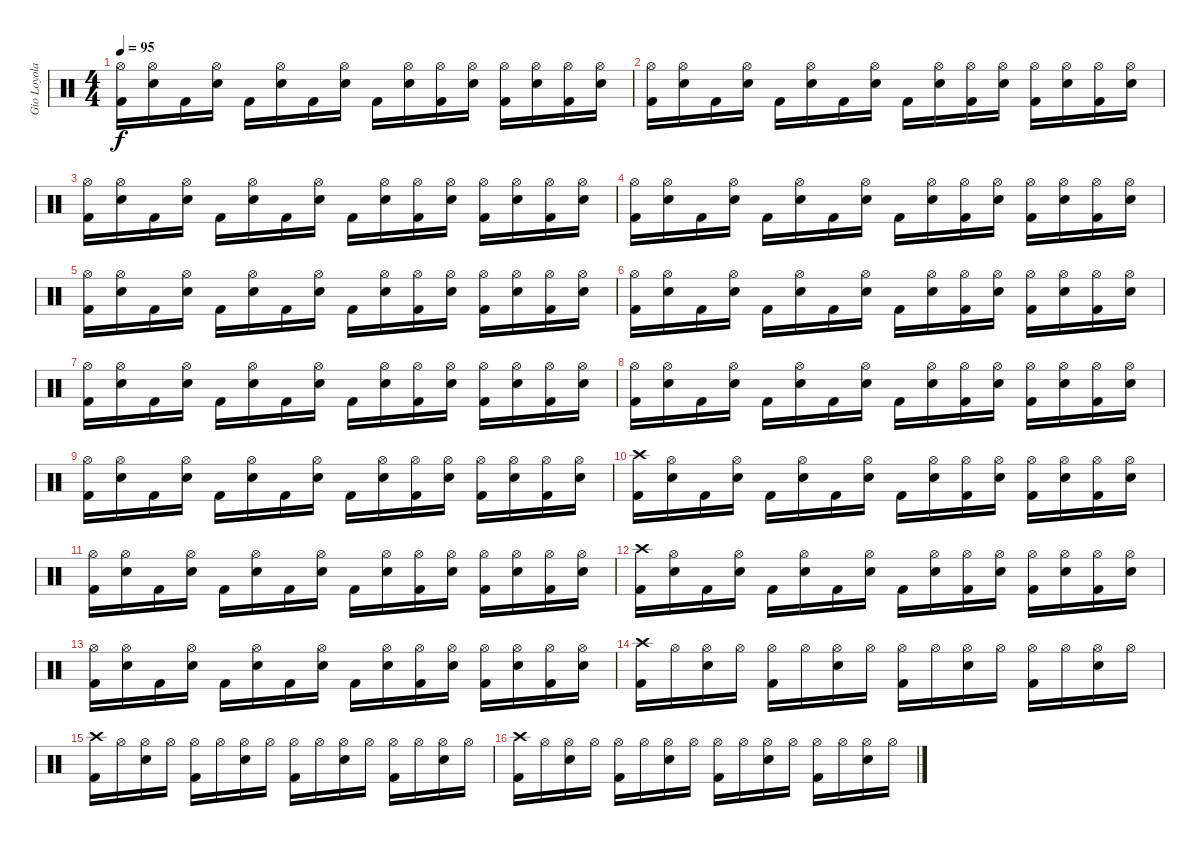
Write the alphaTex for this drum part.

\track ("Gio Loyola" "Gio Loyola") {instrument percussion}
\staff {score}
\articulation defaults
\ts (4 4)
\tempo 95
\clef neutral
\ks c
("Hi-Hat (open)" "Kick (hit) 2").16{dy f} ("Hi-Hat (open)" "Snare (hit) 2").16 "Kick (hit) 2".16 ("Hi-Hat (open)" "Snare (hit) 2").16 "Kick (hit) 2".16 ("Hi-Hat (open)" "Snare (hit) 2").16 "Kick (hit) 2".16 ("Hi-Hat (open)" "Snare (hit) 2").16 "Kick (hit) 2".16 ("Hi-Hat (open)" "Snare (hit) 2").16 ("Hi-Hat (open)" "Kick (hit) 2").16 ("Hi-Hat (open)" "Snare (hit) 2").16 ("Hi-Hat (open)" "Kick (hit) 2").16 ("Hi-Hat (open)" "Snare (hit) 2").16 ("Hi-Hat (open)" "Kick (hit) 2").16 ("Hi-Hat (open)" "Snare (hit) 2").16 |
("Hi-Hat (open)" "Kick (hit) 2").16 ("Hi-Hat (open)" "Snare (hit) 2").16 "Kick (hit) 2".16 ("Hi-Hat (open)" "Snare (hit) 2").16 "Kick (hit) 2".16 ("Hi-Hat (open)" "Snare (hit) 2").16 "Kick (hit) 2".16 ("Hi-Hat (open)" "Snare (hit) 2").16 "Kick (hit) 2".16 ("Hi-Hat (open)" "Snare (hit) 2").16 ("Hi-Hat (open)" "Kick (hit) 2").16 ("Hi-Hat (open)" "Snare (hit) 2").16 ("Hi-Hat (open)" "Kick (hit) 2").16 ("Hi-Hat (open)" "Snare (hit) 2").16 ("Hi-Hat (open)" "Kick (hit) 2").16 ("Hi-Hat (open)" "Snare (hit) 2").16 |
("Hi-Hat (open)" "Kick (hit) 2").16 ("Hi-Hat (open)" "Snare (hit) 2").16 "Kick (hit) 2".16 ("Hi-Hat (open)" "Snare (hit) 2").16 "Kick (hit) 2".16 ("Hi-Hat (open)" "Snare (hit) 2").16 "Kick (hit) 2".16 ("Hi-Hat (open)" "Snare (hit) 2").16 "Kick (hit) 2".16 ("Hi-Hat (open)" "Snare (hit) 2").16 ("Hi-Hat (open)" "Kick (hit) 2").16 ("Hi-Hat (open)" "Snare (hit) 2").16 ("Hi-Hat (open)" "Kick (hit) 2").16 ("Hi-Hat (open)" "Snare (hit) 2").16 ("Hi-Hat (open)" "Kick (hit) 2").16 ("Hi-Hat (open)" "Snare (hit) 2").16 |
("Hi-Hat (open)" "Kick (hit) 2").16 ("Hi-Hat (open)" "Snare (hit) 2").16 "Kick (hit) 2".16 ("Hi-Hat (open)" "Snare (hit) 2").16 "Kick (hit) 2".16 ("Hi-Hat (open)" "Snare (hit) 2").16 "Kick (hit) 2".16 ("Hi-Hat (open)" "Snare (hit) 2").16 "Kick (hit) 2".16 ("Hi-Hat (open)" "Snare (hit) 2").16 ("Hi-Hat (open)" "Kick (hit) 2").16 ("Hi-Hat (open)" "Snare (hit) 2").16 ("Hi-Hat (open)" "Kick (hit) 2").16 ("Hi-Hat (open)" "Snare (hit) 2").16 ("Hi-Hat (open)" "Kick (hit) 2").16 ("Hi-Hat (open)" "Snare (hit) 2").16 |
("Hi-Hat (open)" "Kick (hit) 2").16 ("Hi-Hat (open)" "Snare (hit) 2").16 "Kick (hit) 2".16 ("Hi-Hat (open)" "Snare (hit) 2").16 "Kick (hit) 2".16 ("Hi-Hat (open)" "Snare (hit) 2").16 "Kick (hit) 2".16 ("Hi-Hat (open)" "Snare (hit) 2").16 "Kick (hit) 2".16 ("Hi-Hat (open)" "Snare (hit) 2").16 ("Hi-Hat (open)" "Kick (hit) 2").16 ("Hi-Hat (open)" "Snare (hit) 2").16 ("Hi-Hat (open)" "Kick (hit) 2").16 ("Hi-Hat (open)" "Snare (hit) 2").16 ("Hi-Hat (open)" "Kick (hit) 2").16 ("Hi-Hat (open)" "Snare (hit) 2").16 |
("Hi-Hat (open)" "Kick (hit) 2").16 ("Hi-Hat (open)" "Snare (hit) 2").16 "Kick (hit) 2".16 ("Hi-Hat (open)" "Snare (hit) 2").16 "Kick (hit) 2".16 ("Hi-Hat (open)" "Snare (hit) 2").16 "Kick (hit) 2".16 ("Hi-Hat (open)" "Snare (hit) 2").16 "Kick (hit) 2".16 ("Hi-Hat (open)" "Snare (hit) 2").16 ("Hi-Hat (open)" "Kick (hit) 2").16 ("Hi-Hat (open)" "Snare (hit) 2").16 ("Hi-Hat (open)" "Kick (hit) 2").16 ("Hi-Hat (open)" "Snare (hit) 2").16 ("Hi-Hat (open)" "Kick (hit) 2").16 ("Hi-Hat (open)" "Snare (hit) 2").16 |
("Hi-Hat (open)" "Kick (hit) 2").16 ("Hi-Hat (open)" "Snare (hit) 2").16 "Kick (hit) 2".16 ("Hi-Hat (open)" "Snare (hit) 2").16 "Kick (hit) 2".16 ("Hi-Hat (open)" "Snare (hit) 2").16 "Kick (hit) 2".16 ("Hi-Hat (open)" "Snare (hit) 2").16 "Kick (hit) 2".16 ("Hi-Hat (open)" "Snare (hit) 2").16 ("Hi-Hat (open)" "Kick (hit) 2").16 ("Hi-Hat (open)" "Snare (hit) 2").16 ("Hi-Hat (open)" "Kick (hit) 2").16 ("Hi-Hat (open)" "Snare (hit) 2").16 ("Hi-Hat (open)" "Kick (hit) 2").16 ("Hi-Hat (open)" "Snare (hit) 2").16 |
("Hi-Hat (open)" "Kick (hit) 2").16 ("Hi-Hat (open)" "Snare (hit) 2").16 "Kick (hit) 2".16 ("Hi-Hat (open)" "Snare (hit) 2").16 "Kick (hit) 2".16 ("Hi-Hat (open)" "Snare (hit) 2").16 "Kick (hit) 2".16 ("Hi-Hat (open)" "Snare (hit) 2").16 "Kick (hit) 2".16 ("Hi-Hat (open)" "Snare (hit) 2").16 ("Hi-Hat (open)" "Kick (hit) 2").16 ("Hi-Hat (open)" "Snare (hit) 2").16 ("Hi-Hat (open)" "Kick (hit) 2").16 ("Hi-Hat (open)" "Snare (hit) 2").16 ("Hi-Hat (open)" "Kick (hit) 2").16 ("Hi-Hat (open)" "Snare (hit) 2").16 |
("Hi-Hat (open)" "Kick (hit) 2").16 ("Hi-Hat (open)" "Snare (hit) 2").16 "Kick (hit) 2".16 ("Hi-Hat (open)" "Snare (hit) 2").16 "Kick (hit) 2".16 ("Hi-Hat (open)" "Snare (hit) 2").16 "Kick (hit) 2".16 ("Hi-Hat (open)" "Snare (hit) 2").16 "Kick (hit) 2".16 ("Hi-Hat (open)" "Snare (hit) 2").16 ("Hi-Hat (open)" "Kick (hit) 2").16 ("Hi-Hat (open)" "Snare (hit) 2").16 ("Hi-Hat (open)" "Kick (hit) 2").16 ("Hi-Hat (open)" "Snare (hit) 2").16 ("Hi-Hat (open)" "Kick (hit) 2").16 ("Hi-Hat (open)" "Snare (hit) 2").16 |
("Crash high (hit)" "Kick (hit) 2").16 ("Hi-Hat (open)" "Snare (hit) 2").16 "Kick (hit) 2".16 ("Hi-Hat (open)" "Snare (hit) 2").16 "Kick (hit) 2".16 ("Hi-Hat (open)" "Snare (hit) 2").16 "Kick (hit) 2".16 ("Hi-Hat (open)" "Snare (hit) 2").16 "Kick (hit) 2".16 ("Hi-Hat (open)" "Snare (hit) 2").16 ("Hi-Hat (open)" "Kick (hit) 2").16 ("Hi-Hat (open)" "Snare (hit) 2").16 ("Hi-Hat (open)" "Kick (hit) 2").16 ("Hi-Hat (open)" "Snare (hit) 2").16 ("Hi-Hat (open)" "Kick (hit) 2").16 ("Hi-Hat (open)" "Snare (hit) 2").16 |
("Hi-Hat (open)" "Kick (hit) 2").16 ("Hi-Hat (open)" "Snare (hit) 2").16 "Kick (hit) 2".16 ("Hi-Hat (open)" "Snare (hit) 2").16 "Kick (hit) 2".16 ("Hi-Hat (open)" "Snare (hit) 2").16 "Kick (hit) 2".16 ("Hi-Hat (open)" "Snare (hit) 2").16 "Kick (hit) 2".16 ("Hi-Hat (open)" "Snare (hit) 2").16 ("Hi-Hat (open)" "Kick (hit) 2").16 ("Hi-Hat (open)" "Snare (hit) 2").16 ("Hi-Hat (open)" "Kick (hit) 2").16 ("Hi-Hat (open)" "Snare (hit) 2").16 ("Hi-Hat (open)" "Kick (hit) 2").16 ("Hi-Hat (open)" "Snare (hit) 2").16 |
("Crash high (hit)" "Kick (hit) 2").16 ("Hi-Hat (open)" "Snare (hit) 2").16 "Kick (hit) 2".16 ("Hi-Hat (open)" "Snare (hit) 2").16 "Kick (hit) 2".16 ("Hi-Hat (open)" "Snare (hit) 2").16 "Kick (hit) 2".16 ("Hi-Hat (open)" "Snare (hit) 2").16 "Kick (hit) 2".16 ("Hi-Hat (open)" "Snare (hit) 2").16 ("Hi-Hat (open)" "Kick (hit) 2").16 ("Hi-Hat (open)" "Snare (hit) 2").16 ("Hi-Hat (open)" "Kick (hit) 2").16 ("Hi-Hat (open)" "Snare (hit) 2").16 ("Hi-Hat (open)" "Kick (hit) 2").16 ("Hi-Hat (open)" "Snare (hit) 2").16 |
("Hi-Hat (open)" "Kick (hit) 2").16 ("Hi-Hat (open)" "Snare (hit) 2").16 "Kick (hit) 2".16 ("Hi-Hat (open)" "Snare (hit) 2").16 "Kick (hit) 2".16 ("Hi-Hat (open)" "Snare (hit) 2").16 "Kick (hit) 2".16 ("Hi-Hat (open)" "Snare (hit) 2").16 "Kick (hit) 2".16 ("Hi-Hat (open)" "Snare (hit) 2").16 ("Hi-Hat (open)" "Kick (hit) 2").16 ("Hi-Hat (open)" "Snare (hit) 2").16 ("Hi-Hat (open)" "Kick (hit) 2").16 ("Hi-Hat (open)" "Snare (hit) 2").16 ("Hi-Hat (open)" "Kick (hit) 2").16 ("Hi-Hat (open)" "Snare (hit) 2").16 |
("Crash high (hit)" "Kick (hit) 2").16 "Hi-Hat (open)".16 ("Hi-Hat (open)" "Snare (hit) 2").16 "Hi-Hat (open)".16 ("Hi-Hat (open)" "Kick (hit) 2").16 "Hi-Hat (open)".16 ("Hi-Hat (open)" "Snare (hit) 2").16 "Hi-Hat (open)".16 ("Hi-Hat (open)" "Kick (hit) 2").16 "Hi-Hat (open)".16 ("Hi-Hat (open)" "Snare (hit) 2").16 "Hi-Hat (open)".16 ("Hi-Hat (open)" "Kick (hit) 2").16 "Hi-Hat (open)".16 ("Hi-Hat (open)" "Snare (hit) 2").16 "Hi-Hat (open)".16 |
("Crash high (hit)" "Kick (hit) 2").16 "Hi-Hat (open)".16 ("Hi-Hat (open)" "Snare (hit) 2").16 "Hi-Hat (open)".16 ("Hi-Hat (open)" "Kick (hit) 2").16 "Hi-Hat (open)".16 ("Hi-Hat (open)" "Snare (hit) 2").16 "Hi-Hat (open)".16 ("Hi-Hat (open)" "Kick (hit) 2").16 "Hi-Hat (open)".16 ("Hi-Hat (open)" "Snare (hit) 2").16 "Hi-Hat (open)".16 ("Hi-Hat (open)" "Kick (hit) 2").16 "Hi-Hat (open)".16 ("Hi-Hat (open)" "Snare (hit) 2").16 "Hi-Hat (open)".16 |
("Crash high (hit)" "Kick (hit) 2").16 "Hi-Hat (open)".16 ("Hi-Hat (open)" "Snare (hit) 2").16 "Hi-Hat (open)".16 ("Hi-Hat (open)" "Kick (hit) 2").16 "Hi-Hat (open)".16 ("Hi-Hat (open)" "Snare (hit) 2").16 "Hi-Hat (open)".16 ("Hi-Hat (open)" "Kick (hit) 2").16 "Hi-Hat (open)".16 ("Hi-Hat (open)" "Snare (hit) 2").16 "Hi-Hat (open)".16 ("Hi-Hat (open)" "Kick (hit) 2").16 "Hi-Hat (open)".16 ("Hi-Hat (open)" "Snare (hit) 2").16 "Hi-Hat (open)".16
